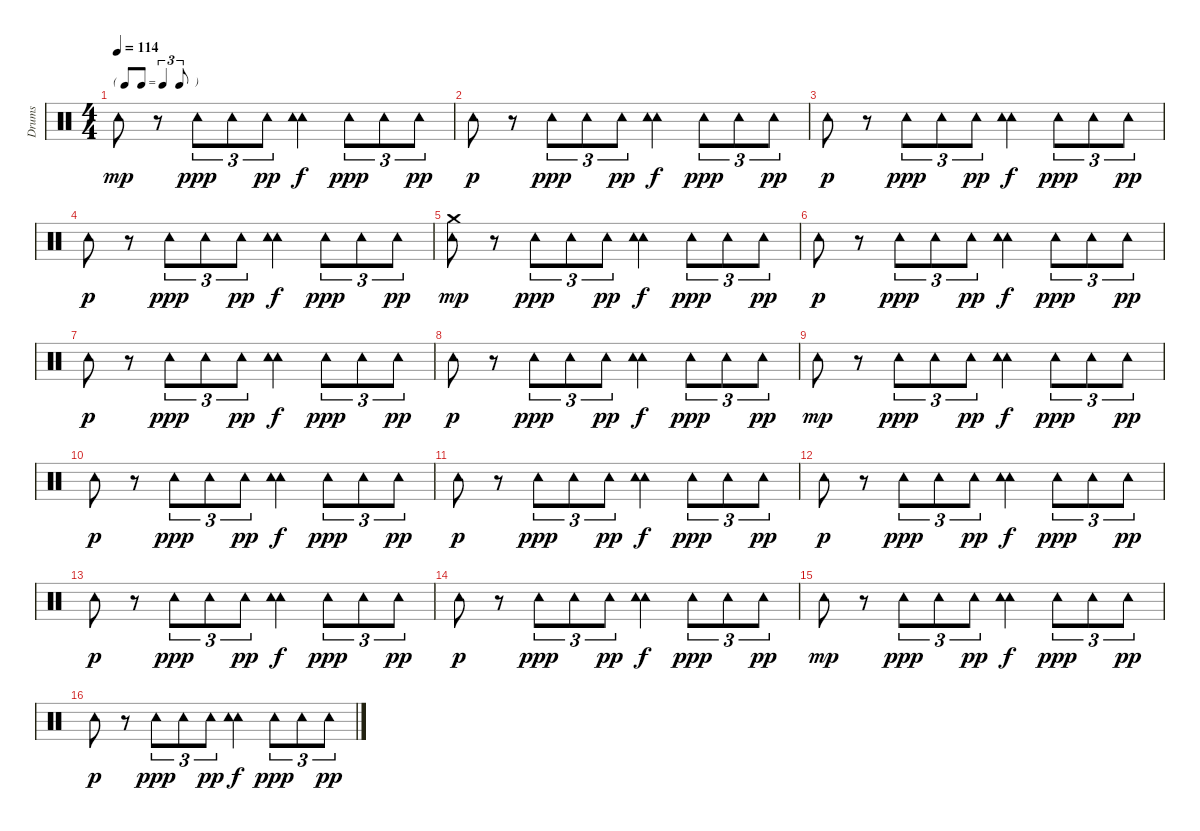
\track ("Drums" "Drums") {instrument percussion}
\staff {score}
\articulation defaults
\ts (4 4)
\tf triplet8th
\tempo 114
\clef neutral
\ks c "Tambourine (hit)".8{dy mp}
r.8 "Tambourine (hit)".8{tu (3 2) dy ppp} "Tambourine (hit)".8{tu (3 2)} "Tambourine (hit)".8{tu (3 2) dy pp} ("Tambourine (hit)" "Tambourine (hit)").4{dy f} "Tambourine (hit)".8{tu (3 2) dy ppp} "Tambourine (hit)".8{tu (3 2)} "Tambourine (hit)".8{tu (3 2) dy pp} |
"Tambourine (hit)".8{dy p} r.8 "Tambourine (hit)".8{tu (3 2) dy ppp} "Tambourine (hit)".8{tu (3 2)} "Tambourine (hit)".8{tu (3 2) dy pp} ("Tambourine (hit)" "Tambourine (hit)").4{dy f} "Tambourine (hit)".8{tu (3 2) dy ppp} "Tambourine (hit)".8{tu (3 2)} "Tambourine (hit)".8{tu (3 2) dy pp} |
"Tambourine (hit)".8{dy p} r.8 "Tambourine (hit)".8{tu (3 2) dy ppp} "Tambourine (hit)".8{tu (3 2)} "Tambourine (hit)".8{tu (3 2) dy pp} ("Tambourine (hit)" "Tambourine (hit)").4{dy f} "Tambourine (hit)".8{tu (3 2) dy ppp} "Tambourine (hit)".8{tu (3 2)} "Tambourine (hit)".8{tu (3 2) dy pp} |
"Tambourine (hit)".8{dy p} r.8 "Tambourine (hit)".8{tu (3 2) dy ppp} "Tambourine (hit)".8{tu (3 2)} "Tambourine (hit)".8{tu (3 2) dy pp} ("Tambourine (hit)" "Tambourine (hit)").4{dy f} "Tambourine (hit)".8{tu (3 2) dy ppp} "Tambourine (hit)".8{tu (3 2)} "Tambourine (hit)".8{tu (3 2) dy pp} |
("Crash medium (hit)" "Tambourine (hit)").8{dy mp} r.8 "Tambourine (hit)".8{tu (3 2) dy ppp} "Tambourine (hit)".8{tu (3 2)} "Tambourine (hit)".8{tu (3 2) dy pp} ("Tambourine (hit)" "Tambourine (hit)").4{dy f} "Tambourine (hit)".8{tu (3 2) dy ppp} "Tambourine (hit)".8{tu (3 2)} "Tambourine (hit)".8{tu (3 2) dy pp} |
"Tambourine (hit)".8{dy p} r.8 "Tambourine (hit)".8{tu (3 2) dy ppp} "Tambourine (hit)".8{tu (3 2)} "Tambourine (hit)".8{tu (3 2) dy pp} ("Tambourine (hit)" "Tambourine (hit)").4{dy f} "Tambourine (hit)".8{tu (3 2) dy ppp} "Tambourine (hit)".8{tu (3 2)} "Tambourine (hit)".8{tu (3 2) dy pp} |
"Tambourine (hit)".8{dy p} r.8 "Tambourine (hit)".8{tu (3 2) dy ppp} "Tambourine (hit)".8{tu (3 2)} "Tambourine (hit)".8{tu (3 2) dy pp} ("Tambourine (hit)" "Tambourine (hit)").4{dy f} "Tambourine (hit)".8{tu (3 2) dy ppp} "Tambourine (hit)".8{tu (3 2)} "Tambourine (hit)".8{tu (3 2) dy pp} |
"Tambourine (hit)".8{dy p} r.8 "Tambourine (hit)".8{tu (3 2) dy ppp} "Tambourine (hit)".8{tu (3 2)} "Tambourine (hit)".8{tu (3 2) dy pp} ("Tambourine (hit)" "Tambourine (hit)").4{dy f} "Tambourine (hit)".8{tu (3 2) dy ppp} "Tambourine (hit)".8{tu (3 2)} "Tambourine (hit)".8{tu (3 2) dy pp} |
"Tambourine (hit)".8{dy mp} r.8 "Tambourine (hit)".8{tu (3 2) dy ppp} "Tambourine (hit)".8{tu (3 2)} "Tambourine (hit)".8{tu (3 2) dy pp} ("Tambourine (hit)" "Tambourine (hit)").4{dy f} "Tambourine (hit)".8{tu (3 2) dy ppp} "Tambourine (hit)".8{tu (3 2)} "Tambourine (hit)".8{tu (3 2) dy pp} |
"Tambourine (hit)".8{dy p} r.8 "Tambourine (hit)".8{tu (3 2) dy ppp} "Tambourine (hit)".8{tu (3 2)} "Tambourine (hit)".8{tu (3 2) dy pp} ("Tambourine (hit)" "Tambourine (hit)").4{dy f} "Tambourine (hit)".8{tu (3 2) dy ppp} "Tambourine (hit)".8{tu (3 2)} "Tambourine (hit)".8{tu (3 2) dy pp} |
"Tambourine (hit)".8{dy p} r.8 "Tambourine (hit)".8{tu (3 2) dy ppp} "Tambourine (hit)".8{tu (3 2)} "Tambourine (hit)".8{tu (3 2) dy pp} ("Tambourine (hit)" "Tambourine (hit)").4{dy f} "Tambourine (hit)".8{tu (3 2) dy ppp} "Tambourine (hit)".8{tu (3 2)} "Tambourine (hit)".8{tu (3 2) dy pp} |
"Tambourine (hit)".8{dy p} r.8 "Tambourine (hit)".8{tu (3 2) dy ppp} "Tambourine (hit)".8{tu (3 2)} "Tambourine (hit)".8{tu (3 2) dy pp} ("Tambourine (hit)" "Tambourine (hit)").4{dy f} "Tambourine (hit)".8{tu (3 2) dy ppp} "Tambourine (hit)".8{tu (3 2)} "Tambourine (hit)".8{tu (3 2) dy pp} |
"Tambourine (hit)".8{dy p} r.8 "Tambourine (hit)".8{tu (3 2) dy ppp} "Tambourine (hit)".8{tu (3 2)} "Tambourine (hit)".8{tu (3 2) dy pp} ("Tambourine (hit)" "Tambourine (hit)").4{dy f} "Tambourine (hit)".8{tu (3 2) dy ppp} "Tambourine (hit)".8{tu (3 2)} "Tambourine (hit)".8{tu (3 2) dy pp} |
"Tambourine (hit)".8{dy p} r.8 "Tambourine (hit)".8{tu (3 2) dy ppp} "Tambourine (hit)".8{tu (3 2)} "Tambourine (hit)".8{tu (3 2) dy pp} ("Tambourine (hit)" "Tambourine (hit)").4{dy f} "Tambourine (hit)".8{tu (3 2) dy ppp} "Tambourine (hit)".8{tu (3 2)} "Tambourine (hit)".8{tu (3 2) dy pp} |
"Tambourine (hit)".8{dy mp} r.8 "Tambourine (hit)".8{tu (3 2) dy ppp} "Tambourine (hit)".8{tu (3 2)} "Tambourine (hit)".8{tu (3 2) dy pp} ("Tambourine (hit)" "Tambourine (hit)").4{dy f} "Tambourine (hit)".8{tu (3 2) dy ppp} "Tambourine (hit)".8{tu (3 2)} "Tambourine (hit)".8{tu (3 2) dy pp} |
"Tambourine (hit)".8{dy p} r.8 "Tambourine (hit)".8{tu (3 2) dy ppp} "Tambourine (hit)".8{tu (3 2)} "Tambourine (hit)".8{tu (3 2) dy pp} ("Tambourine (hit)" "Tambourine (hit)").4{dy f} "Tambourine (hit)".8{tu (3 2) dy ppp} "Tambourine (hit)".8{tu (3 2)} "Tambourine (hit)".8{tu (3 2) dy pp}
